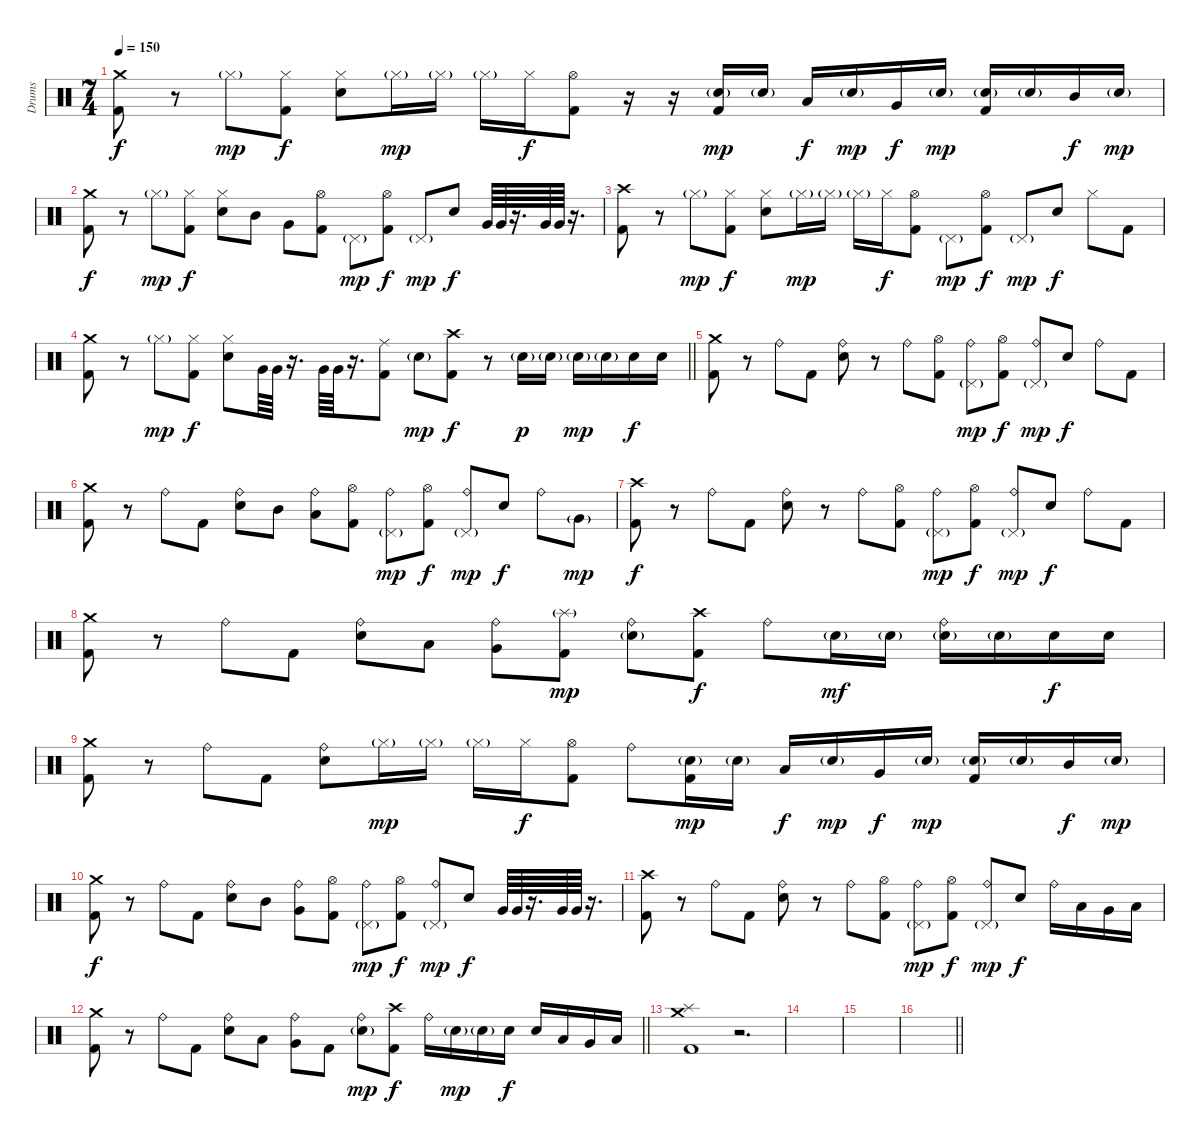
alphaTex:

\track ("Drums" "Drums") {instrument percussion}
\staff {score}
\articulation defaults
\ts (7 4)
\tempo 150
\clef neutral
\ks c
("Crash medium (hit)" "Kick (hit) 2").8{dy f} r.8 "Hi-Hat (closed)"{g}.8{dy mp} ("Hi-Hat (closed)" "Kick (hit) 2").8{dy f} ("Hi-Hat (closed)" "Electric Snare (hit)").8 "Hi-Hat (closed)"{g}.16{dy mp} "Hi-Hat (closed)"{g}.16 "Hi-Hat (closed)"{g}.16 "Hi-Hat (closed)".16{dy f} ("Hi-Hat (open)" "Kick (hit) 2").8 r.16 r.16 ("Electric Snare (hit)"{g} "Kick (hit) 2").16{dy mp} "Electric Snare (hit)"{g}.16 "Low Tom (hit)".16{dy f} "Electric Snare (hit)"{g}.16{dy mp} "Very Low Tom (hit)".16{dy f} "Electric Snare (hit)"{g}.16{dy mp} ("Electric Snare (hit)"{g} "Kick (hit) 2").16 "Electric Snare (hit)"{g}.16 "Mid Tom (hit)".16{dy f} "Electric Snare (hit)"{g}.16{dy mp} |
("Crash medium (hit)" "Kick (hit) 2").8{dy f} r.8 "Hi-Hat (closed)"{g}.8{dy mp} ("Hi-Hat (closed)" "Kick (hit) 2").8{dy f} ("Hi-Hat (closed)" "Electric Snare (hit)").8 "Mid Tom (hit)".8 "Very Low Tom (hit)".8 ("Hi-Hat (open)" "Kick (hit) 2").8 "Pedal Hi-Hat (hit)"{g}.8{dy mp} ("Hi-Hat (open)" "Kick (hit) 2").8{dy f} "Pedal Hi-Hat (hit)"{g}.8{dy mp} "Electric Snare (hit)".8{dy f} "Very Low Tom (hit)".64 "Very Low Tom (hit)".64 r.16{d} "Very Low Tom (hit)".64 "Very Low Tom (hit)".64 r.16{d} |
("Crash high (hit)" "Kick (hit) 2").8 r.8 "Hi-Hat (closed)"{g}.8{dy mp} ("Hi-Hat (closed)" "Kick (hit) 2").8{dy f} ("Hi-Hat (closed)" "Electric Snare (hit)").8 "Hi-Hat (closed)"{g}.16{dy mp} "Hi-Hat (closed)"{g}.16 "Hi-Hat (closed)"{g}.16 "Hi-Hat (closed)".16{dy f} ("Hi-Hat (open)" "Kick (hit) 2").8 "Pedal Hi-Hat (hit)"{g}.8{dy mp} ("Hi-Hat (open)" "Kick (hit) 2").8{dy f} "Pedal Hi-Hat (hit)"{g}.8{dy mp} "Electric Snare (hit)".8{dy f} "Hi-Hat (closed)".8 "Kick (hit) 2".8 |
\barLineRight lightlight
("Crash medium (hit)" "Kick (hit) 2").8 r.8 "Hi-Hat (closed)"{g}.8{dy mp} ("Hi-Hat (closed)" "Kick (hit) 2").8{dy f} ("Hi-Hat (closed)" "Electric Snare (hit)").8 "Very Low Tom (hit)".64 "Very Low Tom (hit)".64 r.16{d} "Very Low Tom (hit)".64 "Very Low Tom (hit)".64 r.16{d} ("Ride (middle)" "Kick (hit) 2").8 "Electric Snare (hit)"{g}.8{dy mp} ("Crash high (hit)" "Kick (hit) 2").8{dy f} r.8 "Electric Snare (hit)"{g}.16{dy p} "Electric Snare (hit)"{g}.16 "Electric Snare (hit)"{g}.16{dy mp} "Electric Snare (hit)"{g}.16 "Electric Snare (hit)".16{dy f} "Electric Snare (hit)".16 |
\section ("" "")
("Crash medium (hit)" "Kick (hit) 2").8 r.8 "Ride (bell)".8 "Kick (hit) 2".8 ("Ride (bell)" "Electric Snare (hit)").8 r.8 "Ride (bell)".8 ("Hi-Hat (open)" "Kick (hit) 2").8 ("Ride (bell)" "Pedal Hi-Hat (hit)"{g}).8{dy mp} ("Hi-Hat (open)" "Kick (hit) 2").8{dy f} ("Ride (bell)" "Pedal Hi-Hat (hit)"{g}).8{dy mp} "Electric Snare (hit)".8{dy f} "Ride (bell)".8 "Kick (hit) 2".8 |
("Crash medium (hit)" "Kick (hit) 2").8 r.8 "Ride (bell)".8 "Kick (hit) 2".8 ("Ride (bell)" "Electric Snare (hit)").8 "Mid Tom (hit)".8 ("Ride (bell)" "Low Tom (hit)").8 ("Hi-Hat (open)" "Kick (hit) 2").8 ("Ride (bell)" "Pedal Hi-Hat (hit)"{g}).8{dy mp} ("Hi-Hat (open)" "Kick (hit) 2").8{dy f} ("Ride (bell)" "Pedal Hi-Hat (hit)"{g}).8{dy mp} "Electric Snare (hit)".8{dy f} "Ride (bell)".8 "Very Low Tom (hit)"{g}.8{dy mp} |
("Crash high (hit)" "Kick (hit) 2").8{dy f} r.8 "Ride (bell)".8 "Kick (hit) 2".8 ("Ride (bell)" "Electric Snare (hit)").8 r.8 "Ride (bell)".8 ("Hi-Hat (open)" "Kick (hit) 2").8 ("Ride (bell)" "Pedal Hi-Hat (hit)"{g}).8{dy mp} ("Hi-Hat (open)" "Kick (hit) 2").8{dy f} ("Ride (bell)" "Pedal Hi-Hat (hit)"{g}).8{dy mp} "Electric Snare (hit)".8{dy f} "Ride (bell)".8 "Kick (hit) 2".8 |
("Crash medium (hit)" "Kick (hit) 2").8 r.8 "Ride (bell)".8 "Kick (hit) 2".8 ("Ride (bell)" "Electric Snare (hit)").8 "Low Tom (hit)".8 ("Ride (bell)" "Very Low Tom (hit)").8 ("Splash (hit)"{g} "Kick (hit) 2").8{dy mp} ("Ride (bell)" "Electric Snare (hit)"{g}).8 ("Crash high (hit)" "Kick (hit) 2").8{dy f} "Ride (bell)".8 "Electric Snare (hit)"{g}.16{dy mf} "Electric Snare (hit)"{g}.16 ("Ride (bell)" "Electric Snare (hit)"{g}).16 "Electric Snare (hit)"{g}.16 "Electric Snare (hit)".16{dy f} "Electric Snare (hit)".16 |
("Crash medium (hit)" "Kick (hit) 2").8 r.8 "Ride (bell)".8 "Kick (hit) 2".8 ("Ride (bell)" "Electric Snare (hit)").8 "Hi-Hat (closed)"{g}.16{dy mp} "Hi-Hat (closed)"{g}.16 "Hi-Hat (closed)"{g}.16 "Hi-Hat (closed)".16{dy f} ("Hi-Hat (open)" "Kick (hit) 2").8 "Ride (bell)".8 ("Electric Snare (hit)"{g} "Kick (hit) 2").16{dy mp} "Electric Snare (hit)"{g}.16 "Low Tom (hit)".16{dy f} "Electric Snare (hit)"{g}.16{dy mp} "Very Low Tom (hit)".16{dy f} "Electric Snare (hit)"{g}.16{dy mp} ("Electric Snare (hit)"{g} "Kick (hit) 2").16 "Electric Snare (hit)"{g}.16 "Mid Tom (hit)".16{dy f} "Electric Snare (hit)"{g}.16{dy mp} |
("Crash medium (hit)" "Kick (hit) 2").8{dy f} r.8 "Ride (bell)".8 "Kick (hit) 2".8 ("Ride (bell)" "Electric Snare (hit)").8 "Mid Tom (hit)".8 ("Ride (bell)" "Very Low Tom (hit)").8 ("Hi-Hat (open)" "Kick (hit) 2").8 ("Ride (bell)" "Pedal Hi-Hat (hit)"{g}).8{dy mp} ("Hi-Hat (open)" "Kick (hit) 2").8{dy f} ("Ride (bell)" "Pedal Hi-Hat (hit)"{g}).8{dy mp} "Electric Snare (hit)".8{dy f} "Very Low Tom (hit)".64 "Very Low Tom (hit)".64 r.16{d} "Very Low Tom (hit)".64 "Very Low Tom (hit)".64 r.16{d} |
("Crash high (hit)" "Kick (hit) 2").8 r.8 "Ride (bell)".8 "Kick (hit) 2".8 ("Ride (bell)" "Electric Snare (hit)").8 r.8 "Ride (bell)".8 ("Hi-Hat (open)" "Kick (hit) 2").8 ("Ride (bell)" "Pedal Hi-Hat (hit)"{g}).8{dy mp} ("Hi-Hat (open)" "Kick (hit) 2").8{dy f} ("Ride (bell)" "Pedal Hi-Hat (hit)"{g}).8{dy mp} "Electric Snare (hit)".8{dy f} "Ride (bell)".16 "Low Tom (hit)".16 "Very Low Tom (hit)".16 "Low Floor Tom (hit)".16 |
\barLineRight lightlight
("Crash medium (hit)" "Kick (hit) 2").8 r.8 "Ride (bell)".8 "Kick (hit) 2".8 ("Ride (bell)" "Electric Snare (hit)").8 "Low Tom (hit)".8 ("Ride (bell)" "Very Low Tom (hit)").8 "Kick (hit) 2".8 ("Ride (bell)" "Electric Snare (hit)"{g}).8{dy mp} ("Crash high (hit)" "Kick (hit) 2").8{dy f} "Ride (bell)".16 "Electric Snare (hit)"{g}.16{dy mp} "Electric Snare (hit)"{g}.16 "Electric Snare (hit)".16{dy f} "Electric Snare (hit)".16 "Low Tom (hit)".16 "Very Low Tom (hit)".16 "Low Floor Tom (hit)".16 |
\section ("" "")
("Crash medium (hit)" "Splash (hit)" "Kick (hit) 2").1 r.2{d} |
|
|
\barLineRight lightlight
